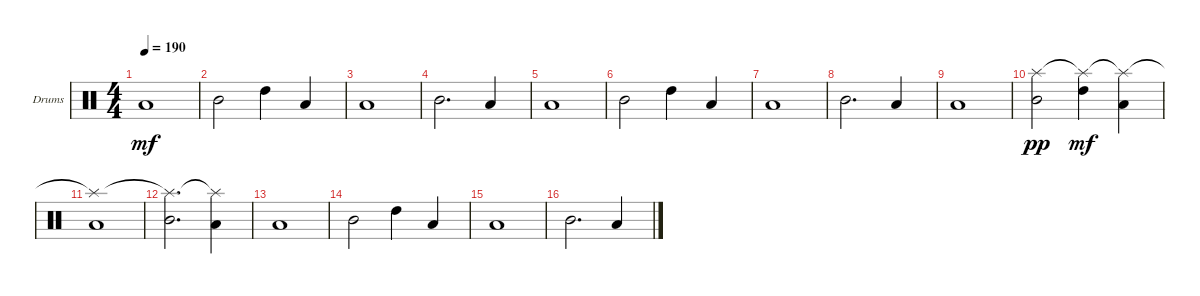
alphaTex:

\defaultSystemsLayout 4
\bracketExtendMode groupsimilarinstruments
\firstSystemTrackNameOrientation horizontal
\otherSystemsTrackNameOrientation horizontal
\track ("Drumkit" "Drums") {instrument percussion}
\staff {score}
\articulation defaults
\ts (4 4)
\tempo 190
\clef neutral
\ks c "Low Tom (hit)".1{dy mf}
|
"Mid Tom (hit)".2 "High Tom (hit)".4 "Low Tom (hit)".4 |
"Low Tom (hit)".1 |
"Mid Tom (hit)".2{d} "Low Tom (hit)".4 |
"Low Tom (hit)".1 |
"Mid Tom (hit)".2 "High Tom (hit)".4 "Low Tom (hit)".4 |
"Low Tom (hit)".1 |
"Mid Tom (hit)".2{d} "Low Tom (hit)".4 |
"Low Tom (hit)".1 |
("Mid Tom (hit)" "Splash (hit)").2{dy pp} ("High Tom (hit)" "Splash (hit)"{t}).4{dy mf} ("Low Tom (hit)" "Splash (hit)"{t}).4 |
("Low Tom (hit)" "Splash (hit)"{t}).1 |
("Mid Tom (hit)" "Splash (hit)"{t}).2{d} ("Low Tom (hit)" "Splash (hit)"{t}).4 |
"Low Tom (hit)".1 |
"Mid Tom (hit)".2 "High Tom (hit)".4 "Low Tom (hit)".4 |
"Low Tom (hit)".1 |
"Mid Tom (hit)".2{d} "Low Tom (hit)".4
